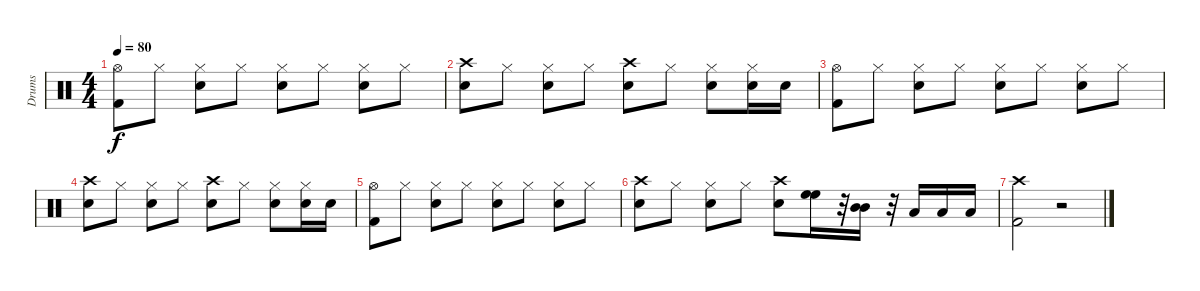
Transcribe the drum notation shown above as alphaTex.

\track ("Drums" "Drums") {instrument percussion}
\staff {score}
\articulation defaults
\ts (4 4)
\tempo 80
\clef neutral
\ks c
("Hi-Hat (open)" "Kick (hit) 2").8{dy f} "Hi-Hat (closed)".8 ("Hi-Hat (closed)" "Snare (hit) 2").8 "Hi-Hat (closed)".8 ("Hi-Hat (closed)" "Snare (hit) 2").8 "Hi-Hat (closed)".8 ("Hi-Hat (closed)" "Snare (hit) 2").8 "Hi-Hat (closed)".8 |
("Crash high (hit)" "Snare (hit) 2").8 "Hi-Hat (closed)".8 ("Hi-Hat (closed)" "Snare (hit) 2").8 "Hi-Hat (closed)".8 ("Crash high (hit)" "Snare (hit) 2").8 "Hi-Hat (closed)".8 ("Hi-Hat (closed)" "Snare (hit) 2").8 ("Hi-Hat (closed)" "Snare (hit) 2").16 "Snare (hit) 2".16 |
("Hi-Hat (open)" "Kick (hit) 2").8 "Hi-Hat (closed)".8 ("Hi-Hat (closed)" "Snare (hit) 2").8 "Hi-Hat (closed)".8 ("Hi-Hat (closed)" "Snare (hit) 2").8 "Hi-Hat (closed)".8 ("Hi-Hat (closed)" "Snare (hit) 2").8 "Hi-Hat (closed)".8 |
("Crash high (hit)" "Snare (hit) 2").8 "Hi-Hat (closed)".8 ("Hi-Hat (closed)" "Snare (hit) 2").8 "Hi-Hat (closed)".8 ("Crash high (hit)" "Snare (hit) 2").8 "Hi-Hat (closed)".8 ("Hi-Hat (closed)" "Snare (hit) 2").8 ("Hi-Hat (closed)" "Snare (hit) 2").16 "Snare (hit) 2".16 |
("Hi-Hat (open)" "Kick (hit) 2").8 "Hi-Hat (closed)".8 ("Hi-Hat (closed)" "Snare (hit) 2").8 "Hi-Hat (closed)".8 ("Hi-Hat (closed)" "Snare (hit) 2").8 "Hi-Hat (closed)".8 ("Hi-Hat (closed)" "Snare (hit) 2").8 "Hi-Hat (closed)".8 |
("Crash high (hit)" "Snare (hit) 2").8 "Hi-Hat (closed)".8 ("Hi-Hat (closed)" "Snare (hit) 2").8 "Hi-Hat (closed)".8 ("Crash high (hit)" "Snare (hit) 2").8 ("High Floor Tom (hit)" "High Floor Tom (hit)").16 r.32 ("Mid Tom (hit)" "Mid Tom (hit)").16 r.32 "Low Tom (hit)".16 "Low Tom (hit)".16 "Low Tom (hit)".16 |
("Crash high (hit)" "Kick (hit) 2").2 r.2
